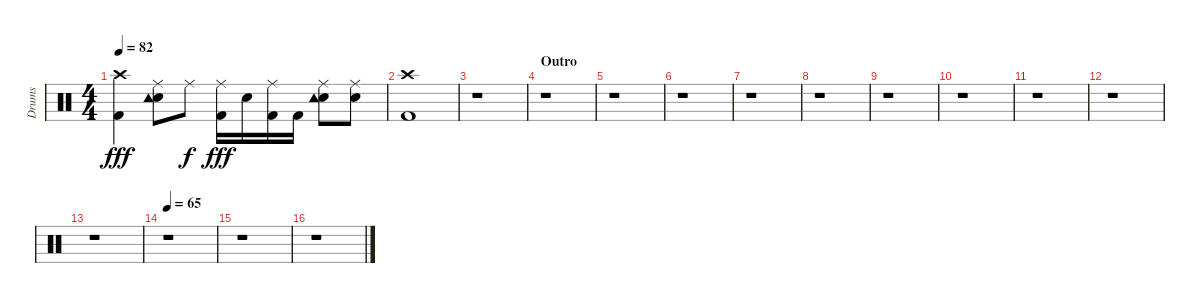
\track ("Drums" "Drums") {instrument percussion}
\staff {score}
\articulation defaults
\ts (4 4)
\tempo 82
\clef neutral
\ks c
("Kick (hit) 2" "Crash high (hit)").4{dy fff} ("Electric Snare (hit)" "Tambourine (hit)" "Ride (middle)").8 "Ride (middle)".8{dy f} ("Kick (hit) 2" "Ride (middle)").16{dy fff} "Electric Snare (hit)".16 ("Kick (hit) 2" "Ride (middle)").16 "Kick (hit) 2".16 ("Electric Snare (hit)" "Tambourine (hit)" "Ride (middle)").8 ("Electric Snare (hit)" "Ride (middle)").8 |
("Kick (hit) 2" "Crash high (hit)").1 |
r.1 |
\section ("" "Outro")
r.1 |
r.1 |
r.1 |
r.1 |
r.1 |
r.1 |
r.1 |
r.1 |
r.1 |
r.1 |
\tempo 65
r.1 |
r.1 |
r.1
